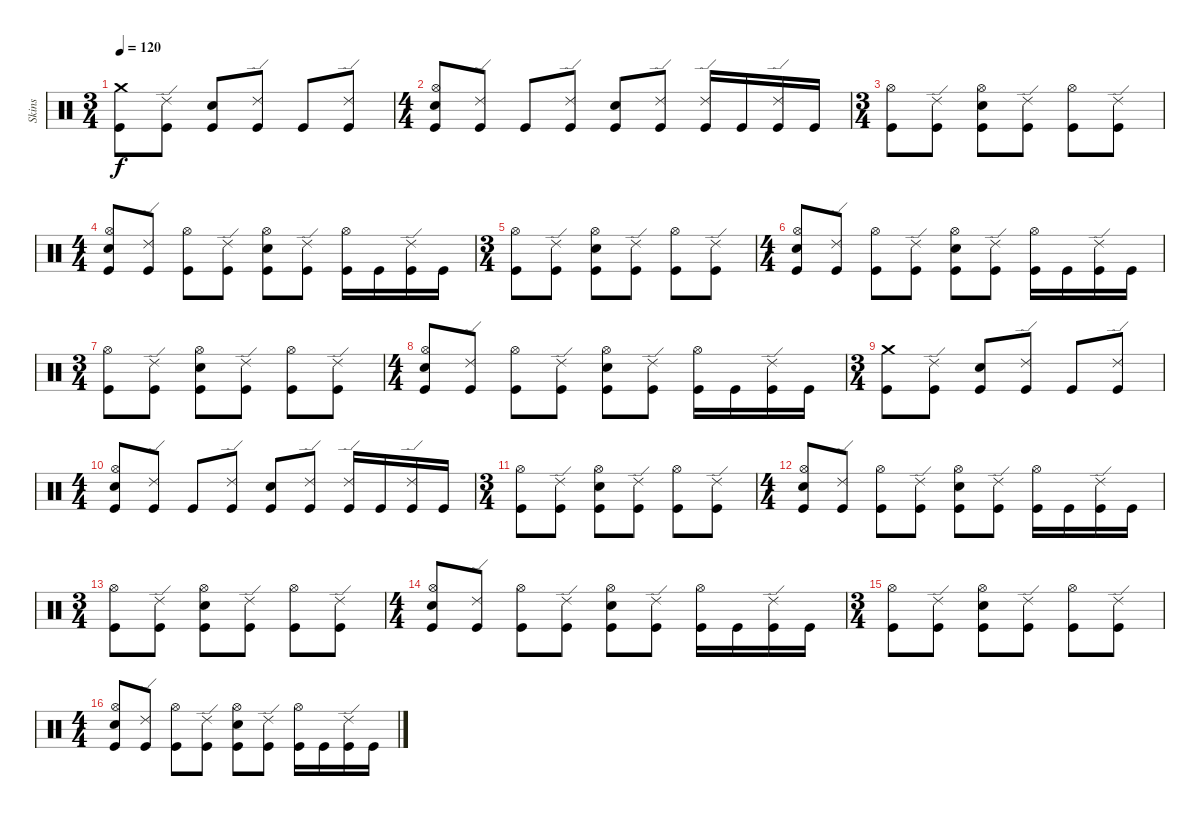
\track ("Skins" "Skins") {instrument percussion}
\staff {score}
\articulation defaults
\ts (3 4)
\tempo 120
\clef neutral
\ks c
("Crash medium (hit)" "Kick (hit)").8{dy f} ("Ride (edge) 2" "Kick (hit)").8 ("Snare (hit) 2" "Kick (hit)").8 ("Ride (edge) 2" "Kick (hit)").8 "Kick (hit)".8 ("Ride (edge) 2" "Kick (hit)").8 |
\ts (4 4)
("Hi-Hat (open)" "Electric Snare (hit)" "Kick (hit)").8 ("Ride (edge) 2" "Kick (hit)").8 "Kick (hit)".8 ("Ride (edge) 2" "Kick (hit)").8 ("Snare (hit) 2" "Kick (hit)").8 ("Ride (edge) 2" "Kick (hit)").8 ("Ride (edge) 2" "Kick (hit)").16 "Kick (hit)".16 ("Ride (edge) 2" "Kick (hit)").16 "Kick (hit)".16 |
\ts (3 4)
("Hi-Hat (open)" "Kick (hit)").8 ("Ride (edge) 2" "Kick (hit)").8 ("Hi-Hat (open)" "Snare (hit) 2" "Kick (hit)").8 ("Ride (edge) 2" "Kick (hit)").8 ("Hi-Hat (open)" "Kick (hit)").8 ("Ride (edge) 2" "Kick (hit)").8 |
\ts (4 4)
("Hi-Hat (open)" "Electric Snare (hit)" "Kick (hit)").8 ("Ride (edge) 2" "Kick (hit)").8 ("Hi-Hat (open)" "Kick (hit)").8 ("Ride (edge) 2" "Kick (hit)").8 ("Hi-Hat (open)" "Snare (hit) 2" "Kick (hit)").8 ("Ride (edge) 2" "Kick (hit)").8 ("Hi-Hat (open)" "Kick (hit)").16 "Kick (hit)".16 ("Ride (edge) 2" "Kick (hit)").16 "Kick (hit)".16 |
\ts (3 4)
("Hi-Hat (open)" "Kick (hit)").8 ("Ride (edge) 2" "Kick (hit)").8 ("Hi-Hat (open)" "Snare (hit) 2" "Kick (hit)").8 ("Ride (edge) 2" "Kick (hit)").8 ("Hi-Hat (open)" "Kick (hit)").8 ("Ride (edge) 2" "Kick (hit)").8 |
\ts (4 4)
("Hi-Hat (open)" "Electric Snare (hit)" "Kick (hit)").8 ("Ride (edge) 2" "Kick (hit)").8 ("Hi-Hat (open)" "Kick (hit)").8 ("Ride (edge) 2" "Kick (hit)").8 ("Hi-Hat (open)" "Snare (hit) 2" "Kick (hit)").8 ("Ride (edge) 2" "Kick (hit)").8 ("Hi-Hat (open)" "Kick (hit)").16 "Kick (hit)".16 ("Ride (edge) 2" "Kick (hit)").16 "Kick (hit)".16 |
\ts (3 4)
("Hi-Hat (open)" "Kick (hit)").8 ("Ride (edge) 2" "Kick (hit)").8 ("Hi-Hat (open)" "Snare (hit) 2" "Kick (hit)").8 ("Ride (edge) 2" "Kick (hit)").8 ("Hi-Hat (open)" "Kick (hit)").8 ("Ride (edge) 2" "Kick (hit)").8 |
\ts (4 4)
("Hi-Hat (open)" "Electric Snare (hit)" "Kick (hit)").8 ("Ride (edge) 2" "Kick (hit)").8 ("Hi-Hat (open)" "Kick (hit)").8 ("Ride (edge) 2" "Kick (hit)").8 ("Hi-Hat (open)" "Snare (hit) 2" "Kick (hit)").8 ("Ride (edge) 2" "Kick (hit)").8 ("Hi-Hat (open)" "Kick (hit)").16 "Kick (hit)".16 ("Ride (edge) 2" "Kick (hit)").16 "Kick (hit)".16 |
\ts (3 4)
("Crash medium (hit)" "Kick (hit)").8 ("Ride (edge) 2" "Kick (hit)").8 ("Snare (hit) 2" "Kick (hit)").8 ("Ride (edge) 2" "Kick (hit)").8 "Kick (hit)".8 ("Ride (edge) 2" "Kick (hit)").8 |
\ts (4 4)
("Hi-Hat (open)" "Electric Snare (hit)" "Kick (hit)").8 ("Ride (edge) 2" "Kick (hit)").8 "Kick (hit)".8 ("Ride (edge) 2" "Kick (hit)").8 ("Snare (hit) 2" "Kick (hit)").8 ("Ride (edge) 2" "Kick (hit)").8 ("Ride (edge) 2" "Kick (hit)").16 "Kick (hit)".16 ("Ride (edge) 2" "Kick (hit)").16 "Kick (hit)".16 |
\ts (3 4)
("Hi-Hat (open)" "Kick (hit)").8 ("Ride (edge) 2" "Kick (hit)").8 ("Hi-Hat (open)" "Snare (hit) 2" "Kick (hit)").8 ("Ride (edge) 2" "Kick (hit)").8 ("Hi-Hat (open)" "Kick (hit)").8 ("Ride (edge) 2" "Kick (hit)").8 |
\ts (4 4)
("Hi-Hat (open)" "Electric Snare (hit)" "Kick (hit)").8 ("Ride (edge) 2" "Kick (hit)").8 ("Hi-Hat (open)" "Kick (hit)").8 ("Ride (edge) 2" "Kick (hit)").8 ("Hi-Hat (open)" "Snare (hit) 2" "Kick (hit)").8 ("Ride (edge) 2" "Kick (hit)").8 ("Hi-Hat (open)" "Kick (hit)").16 "Kick (hit)".16 ("Ride (edge) 2" "Kick (hit)").16 "Kick (hit)".16 |
\ts (3 4)
("Hi-Hat (open)" "Kick (hit)").8 ("Ride (edge) 2" "Kick (hit)").8 ("Hi-Hat (open)" "Snare (hit) 2" "Kick (hit)").8 ("Ride (edge) 2" "Kick (hit)").8 ("Hi-Hat (open)" "Kick (hit)").8 ("Ride (edge) 2" "Kick (hit)").8 |
\ts (4 4)
("Hi-Hat (open)" "Electric Snare (hit)" "Kick (hit)").8 ("Ride (edge) 2" "Kick (hit)").8 ("Hi-Hat (open)" "Kick (hit)").8 ("Ride (edge) 2" "Kick (hit)").8 ("Hi-Hat (open)" "Snare (hit) 2" "Kick (hit)").8 ("Ride (edge) 2" "Kick (hit)").8 ("Hi-Hat (open)" "Kick (hit)").16 "Kick (hit)".16 ("Ride (edge) 2" "Kick (hit)").16 "Kick (hit)".16 |
\ts (3 4)
("Hi-Hat (open)" "Kick (hit)").8 ("Ride (edge) 2" "Kick (hit)").8 ("Hi-Hat (open)" "Snare (hit) 2" "Kick (hit)").8 ("Ride (edge) 2" "Kick (hit)").8 ("Hi-Hat (open)" "Kick (hit)").8 ("Ride (edge) 2" "Kick (hit)").8 |
\ts (4 4)
("Hi-Hat (open)" "Electric Snare (hit)" "Kick (hit)").8 ("Ride (edge) 2" "Kick (hit)").8 ("Hi-Hat (open)" "Kick (hit)").8 ("Ride (edge) 2" "Kick (hit)").8 ("Hi-Hat (open)" "Snare (hit) 2" "Kick (hit)").8 ("Ride (edge) 2" "Kick (hit)").8 ("Hi-Hat (open)" "Kick (hit)").16 "Kick (hit)".16 ("Ride (edge) 2" "Kick (hit)").16 "Kick (hit)".16
